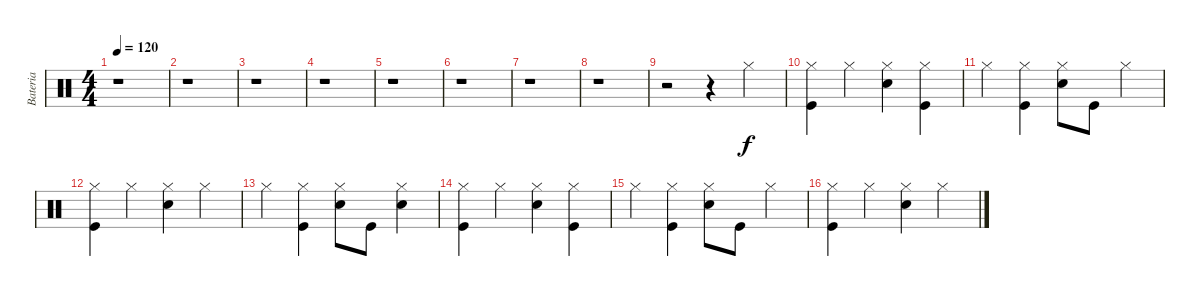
\track ("Bateria" "Bateria") {instrument percussion}
\staff {score}
\articulation defaults
\ts (4 4)
\tempo 120
\clef neutral
\ks c
r.1{dy f} |
r.1 |
r.1 |
r.1 |
r.1 |
r.1 |
r.1 |
r.1 |
r.2 r.4 "Hi-Hat (closed)".4 |
("Kick (hit)" "Hi-Hat (closed)").4 "Hi-Hat (closed)".4 ("Electric Snare (hit)" "Hi-Hat (closed)").4 ("Kick (hit)" "Hi-Hat (closed)").4 |
"Hi-Hat (closed)".4 ("Kick (hit)" "Hi-Hat (closed)").4 ("Electric Snare (hit)" "Hi-Hat (closed)").8 "Kick (hit)".8 "Hi-Hat (closed)".4 |
("Kick (hit)" "Hi-Hat (closed)").4 "Hi-Hat (closed)".4 ("Electric Snare (hit)" "Hi-Hat (closed)").4 "Hi-Hat (closed)".4 |
"Hi-Hat (closed)".4 ("Kick (hit)" "Hi-Hat (closed)").4 ("Electric Snare (hit)" "Hi-Hat (closed)").8 "Kick (hit)".8 ("Electric Snare (hit)" "Hi-Hat (closed)").4 |
("Kick (hit)" "Hi-Hat (closed)").4 "Hi-Hat (closed)".4 ("Electric Snare (hit)" "Hi-Hat (closed)").4 ("Kick (hit)" "Hi-Hat (closed)").4 |
"Hi-Hat (closed)".4 ("Kick (hit)" "Hi-Hat (closed)").4 ("Electric Snare (hit)" "Hi-Hat (closed)").8 "Kick (hit)".8 "Hi-Hat (closed)".4 |
("Kick (hit)" "Hi-Hat (closed)").4 "Hi-Hat (closed)".4 ("Electric Snare (hit)" "Hi-Hat (closed)").4 "Hi-Hat (closed)".4
